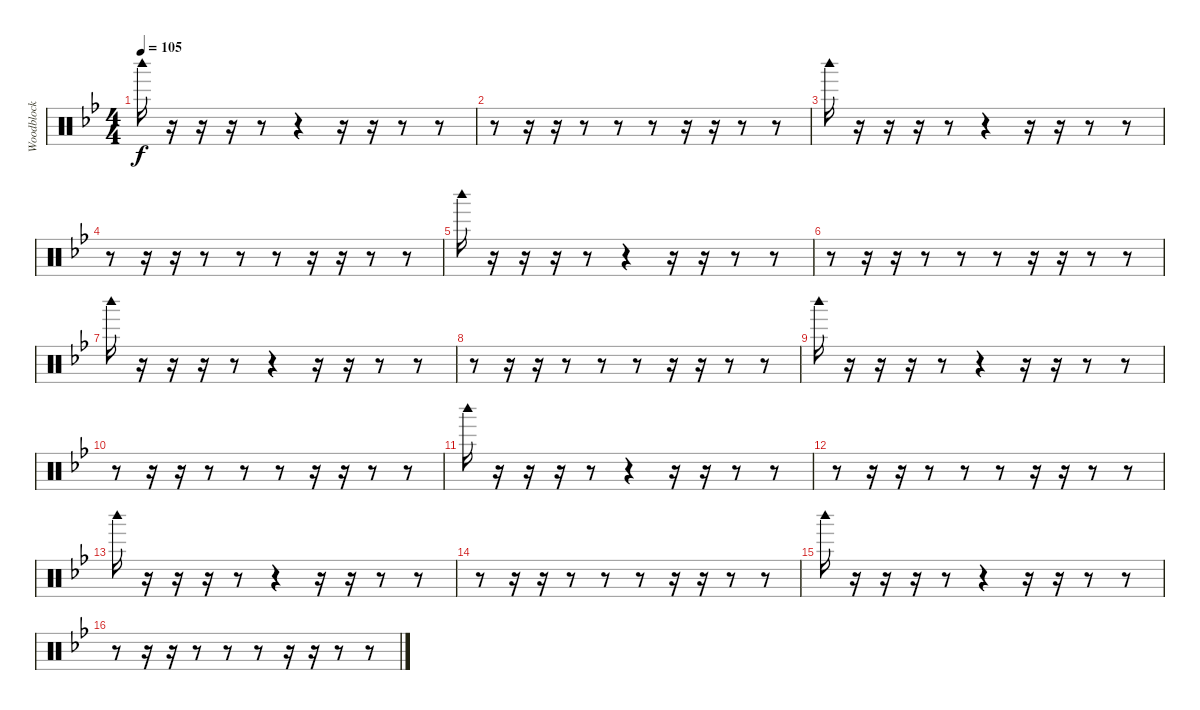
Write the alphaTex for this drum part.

\track ("Woodblock" "Woodblock") {instrument percussion}
\staff {score}
\articulation defaults
\ts (4 4)
\tempo 105
\clef neutral
\ks gminor "Woodblock high (hit)".16{dy f}
r.16 r.16 r.16 r.8 r.4 r.16 r.16 r.8 r.8 |
r.8 r.16 r.16 r.8 r.8 r.8 r.16 r.16 r.8 r.8 |
"Woodblock high (hit)".16 r.16 r.16 r.16 r.8 r.4 r.16 r.16 r.8 r.8 |
r.8 r.16 r.16 r.8 r.8 r.8 r.16 r.16 r.8 r.8 |
"Woodblock high (hit)".16 r.16 r.16 r.16 r.8 r.4 r.16 r.16 r.8 r.8 |
r.8 r.16 r.16 r.8 r.8 r.8 r.16 r.16 r.8 r.8 |
"Woodblock high (hit)".16 r.16 r.16 r.16 r.8 r.4 r.16 r.16 r.8 r.8 |
r.8 r.16 r.16 r.8 r.8 r.8 r.16 r.16 r.8 r.8 |
"Woodblock high (hit)".16 r.16 r.16 r.16 r.8 r.4 r.16 r.16 r.8 r.8 |
r.8 r.16 r.16 r.8 r.8 r.8 r.16 r.16 r.8 r.8 |
"Woodblock high (hit)".16 r.16 r.16 r.16 r.8 r.4 r.16 r.16 r.8 r.8 |
r.8 r.16 r.16 r.8 r.8 r.8 r.16 r.16 r.8 r.8 |
"Woodblock high (hit)".16 r.16 r.16 r.16 r.8 r.4 r.16 r.16 r.8 r.8 |
r.8 r.16 r.16 r.8 r.8 r.8 r.16 r.16 r.8 r.8 |
"Woodblock high (hit)".16 r.16 r.16 r.16 r.8 r.4 r.16 r.16 r.8 r.8 |
r.8 r.16 r.16 r.8 r.8 r.8 r.16 r.16 r.8 r.8
